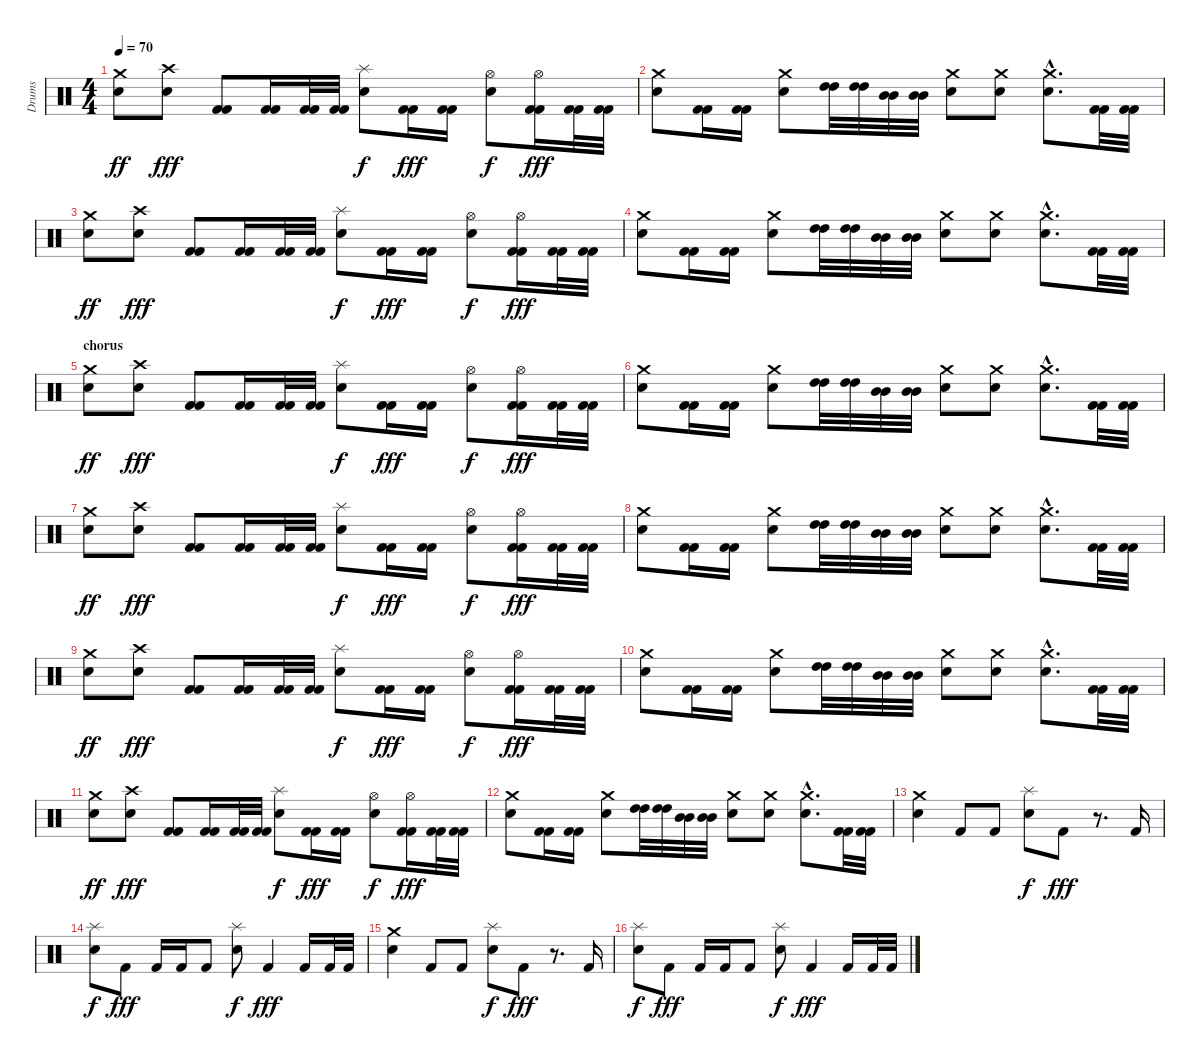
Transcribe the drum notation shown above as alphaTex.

\track ("Drums" "Drums") {instrument percussion}
\staff {score}
\articulation defaults
\ts (4 4)
\tempo 70
\clef neutral
\ks c
("Crash medium (hit)" "Snare (hit) 2").8{dy ff} ("Crash high (hit)" "Snare (hit) 2").8{dy fff} ("Kick (hit) 2" "Kick (hit) 2").8 ("Kick (hit) 2" "Kick (hit) 2").16 ("Kick (hit) 2" "Kick (hit) 2").32 ("Kick (hit) 2" "Kick (hit) 2").32 ("Splash (hit)" "Electric Snare (hit)").8{dy f} ("Kick (hit) 2" "Kick (hit) 2").16{dy fff} ("Kick (hit) 2" "Kick (hit) 2").16 ("Hi-Hat (open)" "Snare (hit) 2").8{dy f} ("Hi-Hat (open)" "Kick (hit) 2" "Kick (hit) 2").16{dy fff} ("Kick (hit) 2" "Kick (hit) 2").32 ("Kick (hit) 2" "Kick (hit) 2").32 |
("Crash medium (hit)" "Electric Snare (hit)").8 ("Kick (hit) 2" "Kick (hit) 2").16 ("Kick (hit) 2" "Kick (hit) 2").16 ("Crash medium (hit)" "Electric Snare (hit)").8 ("High Tom (hit)" "High Tom (hit)").32 ("High Tom (hit)" "High Tom (hit)").32 ("Mid Tom (hit)" "Mid Tom (hit)").32 ("Mid Tom (hit)" "Mid Tom (hit)").32 ("Crash medium (hit)" "Electric Snare (hit)").8 ("Crash medium (hit)" "Electric Snare (hit)").8 ("Crash medium (hit)"{hac} "Electric Snare (hit)"{hac}).8{d} ("Kick (hit) 2" "Kick (hit) 2").32 ("Kick (hit) 2" "Kick (hit) 2").32 |
("Crash medium (hit)" "Snare (hit) 2").8{dy ff} ("Crash high (hit)" "Snare (hit) 2").8{dy fff} ("Kick (hit) 2" "Kick (hit) 2").8 ("Kick (hit) 2" "Kick (hit) 2").16 ("Kick (hit) 2" "Kick (hit) 2").32 ("Kick (hit) 2" "Kick (hit) 2").32 ("Splash (hit)" "Electric Snare (hit)").8{dy f} ("Kick (hit) 2" "Kick (hit) 2").16{dy fff} ("Kick (hit) 2" "Kick (hit) 2").16 ("Hi-Hat (open)" "Snare (hit) 2").8{dy f} ("Hi-Hat (open)" "Kick (hit) 2" "Kick (hit) 2").16{dy fff} ("Kick (hit) 2" "Kick (hit) 2").32 ("Kick (hit) 2" "Kick (hit) 2").32 |
("Crash medium (hit)" "Electric Snare (hit)").8 ("Kick (hit) 2" "Kick (hit) 2").16 ("Kick (hit) 2" "Kick (hit) 2").16 ("Crash medium (hit)" "Electric Snare (hit)").8 ("High Tom (hit)" "High Tom (hit)").32 ("High Tom (hit)" "High Tom (hit)").32 ("Mid Tom (hit)" "Mid Tom (hit)").32 ("Mid Tom (hit)" "Mid Tom (hit)").32 ("Crash medium (hit)" "Electric Snare (hit)").8 ("Crash medium (hit)" "Electric Snare (hit)").8 ("Crash medium (hit)"{hac} "Electric Snare (hit)"{hac}).8{d} ("Kick (hit) 2" "Kick (hit) 2").32 ("Kick (hit) 2" "Kick (hit) 2").32 |
\section ("" "chorus")
("Crash medium (hit)" "Snare (hit) 2").8{dy ff} ("Crash high (hit)" "Snare (hit) 2").8{dy fff} ("Kick (hit) 2" "Kick (hit) 2").8 ("Kick (hit) 2" "Kick (hit) 2").16 ("Kick (hit) 2" "Kick (hit) 2").32 ("Kick (hit) 2" "Kick (hit) 2").32 ("Splash (hit)" "Electric Snare (hit)").8{dy f} ("Kick (hit) 2" "Kick (hit) 2").16{dy fff} ("Kick (hit) 2" "Kick (hit) 2").16 ("Hi-Hat (open)" "Snare (hit) 2").8{dy f} ("Hi-Hat (open)" "Kick (hit) 2" "Kick (hit) 2").16{dy fff} ("Kick (hit) 2" "Kick (hit) 2").32 ("Kick (hit) 2" "Kick (hit) 2").32 |
("Crash medium (hit)" "Electric Snare (hit)").8 ("Kick (hit) 2" "Kick (hit) 2").16 ("Kick (hit) 2" "Kick (hit) 2").16 ("Crash medium (hit)" "Electric Snare (hit)").8 ("High Tom (hit)" "High Tom (hit)").32 ("High Tom (hit)" "High Tom (hit)").32 ("Mid Tom (hit)" "Mid Tom (hit)").32 ("Mid Tom (hit)" "Mid Tom (hit)").32 ("Crash medium (hit)" "Electric Snare (hit)").8 ("Crash medium (hit)" "Electric Snare (hit)").8 ("Crash medium (hit)"{hac} "Electric Snare (hit)"{hac}).8{d} ("Kick (hit) 2" "Kick (hit) 2").32 ("Kick (hit) 2" "Kick (hit) 2").32 |
("Crash medium (hit)" "Snare (hit) 2").8{dy ff} ("Crash high (hit)" "Snare (hit) 2").8{dy fff} ("Kick (hit) 2" "Kick (hit) 2").8 ("Kick (hit) 2" "Kick (hit) 2").16 ("Kick (hit) 2" "Kick (hit) 2").32 ("Kick (hit) 2" "Kick (hit) 2").32 ("Splash (hit)" "Electric Snare (hit)").8{dy f} ("Kick (hit) 2" "Kick (hit) 2").16{dy fff} ("Kick (hit) 2" "Kick (hit) 2").16 ("Hi-Hat (open)" "Snare (hit) 2").8{dy f} ("Hi-Hat (open)" "Kick (hit) 2" "Kick (hit) 2").16{dy fff} ("Kick (hit) 2" "Kick (hit) 2").32 ("Kick (hit) 2" "Kick (hit) 2").32 |
("Crash medium (hit)" "Electric Snare (hit)").8 ("Kick (hit) 2" "Kick (hit) 2").16 ("Kick (hit) 2" "Kick (hit) 2").16 ("Crash medium (hit)" "Electric Snare (hit)").8 ("High Tom (hit)" "High Tom (hit)").32 ("High Tom (hit)" "High Tom (hit)").32 ("Mid Tom (hit)" "Mid Tom (hit)").32 ("Mid Tom (hit)" "Mid Tom (hit)").32 ("Crash medium (hit)" "Electric Snare (hit)").8 ("Crash medium (hit)" "Electric Snare (hit)").8 ("Crash medium (hit)"{hac} "Electric Snare (hit)"{hac}).8{d} ("Kick (hit) 2" "Kick (hit) 2").32 ("Kick (hit) 2" "Kick (hit) 2").32 |
("Crash medium (hit)" "Snare (hit) 2").8{dy ff} ("Crash high (hit)" "Snare (hit) 2").8{dy fff} ("Kick (hit) 2" "Kick (hit) 2").8 ("Kick (hit) 2" "Kick (hit) 2").16 ("Kick (hit) 2" "Kick (hit) 2").32 ("Kick (hit) 2" "Kick (hit) 2").32 ("Splash (hit)" "Electric Snare (hit)").8{dy f} ("Kick (hit) 2" "Kick (hit) 2").16{dy fff} ("Kick (hit) 2" "Kick (hit) 2").16 ("Hi-Hat (open)" "Snare (hit) 2").8{dy f} ("Hi-Hat (open)" "Kick (hit) 2" "Kick (hit) 2").16{dy fff} ("Kick (hit) 2" "Kick (hit) 2").32 ("Kick (hit) 2" "Kick (hit) 2").32 |
("Crash medium (hit)" "Electric Snare (hit)").8 ("Kick (hit) 2" "Kick (hit) 2").16 ("Kick (hit) 2" "Kick (hit) 2").16 ("Crash medium (hit)" "Electric Snare (hit)").8 ("High Tom (hit)" "High Tom (hit)").32 ("High Tom (hit)" "High Tom (hit)").32 ("Mid Tom (hit)" "Mid Tom (hit)").32 ("Mid Tom (hit)" "Mid Tom (hit)").32 ("Crash medium (hit)" "Electric Snare (hit)").8 ("Crash medium (hit)" "Electric Snare (hit)").8 ("Crash medium (hit)"{hac} "Electric Snare (hit)"{hac}).8{d} ("Kick (hit) 2" "Kick (hit) 2").32 ("Kick (hit) 2" "Kick (hit) 2").32 |
("Crash medium (hit)" "Snare (hit) 2").8{dy ff} ("Crash high (hit)" "Snare (hit) 2").8{dy fff} ("Kick (hit) 2" "Kick (hit) 2").8 ("Kick (hit) 2" "Kick (hit) 2").16 ("Kick (hit) 2" "Kick (hit) 2").32 ("Kick (hit) 2" "Kick (hit) 2").32 ("Splash (hit)" "Electric Snare (hit)").8{dy f} ("Kick (hit) 2" "Kick (hit) 2").16{dy fff} ("Kick (hit) 2" "Kick (hit) 2").16 ("Hi-Hat (open)" "Snare (hit) 2").8{dy f} ("Hi-Hat (open)" "Kick (hit) 2" "Kick (hit) 2").16{dy fff} ("Kick (hit) 2" "Kick (hit) 2").32 ("Kick (hit) 2" "Kick (hit) 2").32 |
("Crash medium (hit)" "Electric Snare (hit)").8 ("Kick (hit) 2" "Kick (hit) 2").16 ("Kick (hit) 2" "Kick (hit) 2").16 ("Crash medium (hit)" "Electric Snare (hit)").8 ("High Tom (hit)" "High Tom (hit)").32 ("High Tom (hit)" "High Tom (hit)").32 ("Mid Tom (hit)" "Mid Tom (hit)").32 ("Mid Tom (hit)" "Mid Tom (hit)").32 ("Crash medium (hit)" "Electric Snare (hit)").8 ("Crash medium (hit)" "Electric Snare (hit)").8 ("Crash medium (hit)"{hac} "Electric Snare (hit)"{hac}).8{d} ("Kick (hit) 2" "Kick (hit) 2").32 ("Kick (hit) 2" "Kick (hit) 2").32 |
("Electric Snare (hit)" "Crash medium (hit)").4 "Kick (hit) 2".8 "Kick (hit) 2".8 ("Electric Snare (hit)" "Splash (hit)").8{dy f} "Kick (hit) 2".8{dy fff} r.8{d} "Kick (hit) 2".16 |
("Splash (hit)" "Electric Snare (hit)").8{dy f} "Kick (hit) 2".8{dy fff} "Kick (hit) 2".16 "Kick (hit) 2".16 "Kick (hit) 2".8 ("Splash (hit)" "Electric Snare (hit)").8{dy f} "Kick (hit) 2".4{dy fff} "Kick (hit) 2".16 "Kick (hit) 2".32 "Kick (hit) 2".32 |
("Electric Snare (hit)" "Crash medium (hit)").4 "Kick (hit) 2".8 "Kick (hit) 2".8 ("Electric Snare (hit)" "Splash (hit)").8{dy f} "Kick (hit) 2".8{dy fff} r.8{d} "Kick (hit) 2".16 |
("Splash (hit)" "Electric Snare (hit)").8{dy f} "Kick (hit) 2".8{dy fff} "Kick (hit) 2".16 "Kick (hit) 2".16 "Kick (hit) 2".8 ("Splash (hit)" "Electric Snare (hit)").8{dy f} "Kick (hit) 2".4{dy fff} "Kick (hit) 2".16 "Kick (hit) 2".32 "Kick (hit) 2".32
